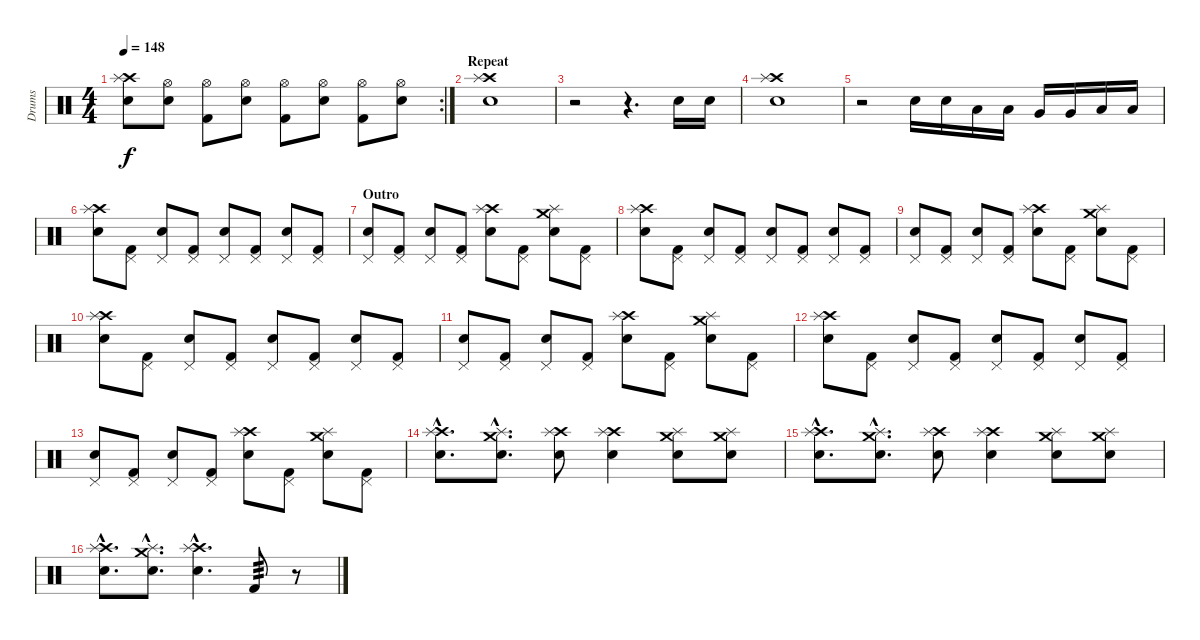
\track ("Drums" "Drums") {instrument percussion}
\staff {score}
\articulation defaults
\rc 2
\ts (4 4)
\tempo 148
\clef neutral
\ks c
("Crash high (hit)" "Splash (hit)" "Snare (hit) 2").8{dy f} ("Hi-Hat (open)" "Snare (hit) 2").8 ("Hi-Hat (open)" "Kick (hit) 2").8 ("Hi-Hat (open)" "Snare (hit) 2").8 ("Hi-Hat (open)" "Kick (hit) 2").8 ("Hi-Hat (open)" "Snare (hit) 2").8 ("Hi-Hat (open)" "Kick (hit) 2").8 ("Hi-Hat (open)" "Snare (hit) 2").8 |
\section ("" "Repeat")
("Crash high (hit)" "Splash (hit)" "Snare (hit) 2").1 |
r.2 r.4{d} "Snare (hit) 2".16 "Snare (hit) 2".16 |
("Crash high (hit)" "Splash (hit)" "Snare (hit) 2").1 |
r.2 "Snare (hit) 2".16 "Snare (hit) 2".16 "Low Floor Tom (hit)".16 "Low Floor Tom (hit)".16 "Very Low Tom (hit)".16 "Very Low Tom (hit)".16 "Low Floor Tom (hit)".16 "Low Floor Tom (hit)".16 |
("Crash high (hit)" "Splash (hit)" "Snare (hit) 2").8 ("Pedal Hi-Hat (hit)" "Kick (hit) 2").8 ("Pedal Hi-Hat (hit)" "Snare (hit) 2").8 ("Pedal Hi-Hat (hit)" "Kick (hit) 2").8 ("Pedal Hi-Hat (hit)" "Snare (hit) 2").8 ("Pedal Hi-Hat (hit)" "Kick (hit) 2").8 ("Pedal Hi-Hat (hit)" "Snare (hit) 2").8 ("Pedal Hi-Hat (hit)" "Kick (hit) 2").8 |
\section ("" "Outro")
("Pedal Hi-Hat (hit)" "Snare (hit) 2").8 ("Pedal Hi-Hat (hit)" "Kick (hit) 2").8 ("Pedal Hi-Hat (hit)" "Snare (hit) 2").8 ("Pedal Hi-Hat (hit)" "Kick (hit) 2").8 ("Crash high (hit)" "Splash (hit)" "Snare (hit) 2").8 ("Pedal Hi-Hat (hit)" "Kick (hit) 2").8 ("Crash medium (hit)" "Splash (hit)" "Snare (hit) 2").8 ("Pedal Hi-Hat (hit)" "Kick (hit) 2").8 |
("Crash high (hit)" "Splash (hit)" "Snare (hit) 2").8 ("Pedal Hi-Hat (hit)" "Kick (hit) 2").8 ("Pedal Hi-Hat (hit)" "Snare (hit) 2").8 ("Pedal Hi-Hat (hit)" "Kick (hit) 2").8 ("Pedal Hi-Hat (hit)" "Snare (hit) 2").8 ("Pedal Hi-Hat (hit)" "Kick (hit) 2").8 ("Pedal Hi-Hat (hit)" "Snare (hit) 2").8 ("Pedal Hi-Hat (hit)" "Kick (hit) 2").8 |
("Pedal Hi-Hat (hit)" "Snare (hit) 2").8 ("Pedal Hi-Hat (hit)" "Kick (hit) 2").8 ("Pedal Hi-Hat (hit)" "Snare (hit) 2").8 ("Pedal Hi-Hat (hit)" "Kick (hit) 2").8 ("Crash high (hit)" "Splash (hit)" "Snare (hit) 2").8 ("Pedal Hi-Hat (hit)" "Kick (hit) 2").8 ("Crash medium (hit)" "Splash (hit)" "Snare (hit) 2").8 ("Pedal Hi-Hat (hit)" "Kick (hit) 2").8 |
("Crash high (hit)" "Splash (hit)" "Snare (hit) 2").8 ("Pedal Hi-Hat (hit)" "Kick (hit) 2").8 ("Pedal Hi-Hat (hit)" "Snare (hit) 2").8 ("Pedal Hi-Hat (hit)" "Kick (hit) 2").8 ("Pedal Hi-Hat (hit)" "Snare (hit) 2").8 ("Pedal Hi-Hat (hit)" "Kick (hit) 2").8 ("Pedal Hi-Hat (hit)" "Snare (hit) 2").8 ("Pedal Hi-Hat (hit)" "Kick (hit) 2").8 |
("Pedal Hi-Hat (hit)" "Snare (hit) 2").8 ("Pedal Hi-Hat (hit)" "Kick (hit) 2").8 ("Pedal Hi-Hat (hit)" "Snare (hit) 2").8 ("Pedal Hi-Hat (hit)" "Kick (hit) 2").8 ("Crash high (hit)" "Splash (hit)" "Snare (hit) 2").8 ("Pedal Hi-Hat (hit)" "Kick (hit) 2").8 ("Crash medium (hit)" "Splash (hit)" "Snare (hit) 2").8 ("Pedal Hi-Hat (hit)" "Kick (hit) 2").8 |
("Crash high (hit)" "Splash (hit)" "Snare (hit) 2").8 ("Pedal Hi-Hat (hit)" "Kick (hit) 2").8 ("Pedal Hi-Hat (hit)" "Snare (hit) 2").8 ("Pedal Hi-Hat (hit)" "Kick (hit) 2").8 ("Pedal Hi-Hat (hit)" "Snare (hit) 2").8 ("Pedal Hi-Hat (hit)" "Kick (hit) 2").8 ("Pedal Hi-Hat (hit)" "Snare (hit) 2").8 ("Pedal Hi-Hat (hit)" "Kick (hit) 2").8 |
("Pedal Hi-Hat (hit)" "Snare (hit) 2").8 ("Pedal Hi-Hat (hit)" "Kick (hit) 2").8 ("Pedal Hi-Hat (hit)" "Snare (hit) 2").8 ("Pedal Hi-Hat (hit)" "Kick (hit) 2").8 ("Crash high (hit)" "Splash (hit)" "Snare (hit) 2").8 ("Pedal Hi-Hat (hit)" "Kick (hit) 2").8 ("Crash medium (hit)" "Splash (hit)" "Snare (hit) 2").8 ("Pedal Hi-Hat (hit)" "Kick (hit) 2").8 |
("Crash high (hit)"{hac} "Splash (hit)"{hac} "Snare (hit) 2"{hac}).8{d} ("Crash medium (hit)"{hac} "Splash (hit)"{hac} "Snare (hit) 2"{hac}).8{d} ("Crash high (hit)" "Splash (hit)" "Snare (hit) 2").8 ("Crash high (hit)" "Splash (hit)" "Snare (hit) 2").4 ("Crash medium (hit)" "Splash (hit)" "Snare (hit) 2").8 ("Crash medium (hit)" "Splash (hit)" "Snare (hit) 2").8 |
("Crash high (hit)"{hac} "Splash (hit)"{hac} "Snare (hit) 2"{hac}).8{d} ("Crash medium (hit)"{hac} "Splash (hit)"{hac} "Snare (hit) 2"{hac}).8{d} ("Crash high (hit)" "Splash (hit)" "Snare (hit) 2").8 ("Crash high (hit)" "Splash (hit)" "Snare (hit) 2").4 ("Crash medium (hit)" "Splash (hit)" "Snare (hit) 2").8 ("Crash medium (hit)" "Splash (hit)" "Snare (hit) 2").8 |
("Crash high (hit)"{hac} "Splash (hit)"{hac} "Snare (hit) 2"{hac}).8{d} ("Crash medium (hit)"{hac} "Splash (hit)"{hac} "Snare (hit) 2"{hac}).8{d} ("Crash high (hit)"{hac} "Splash (hit)"{hac} "Snare (hit) 2"{hac}).4{d} "Kick (hit) 2".8{tp 3} r.8
